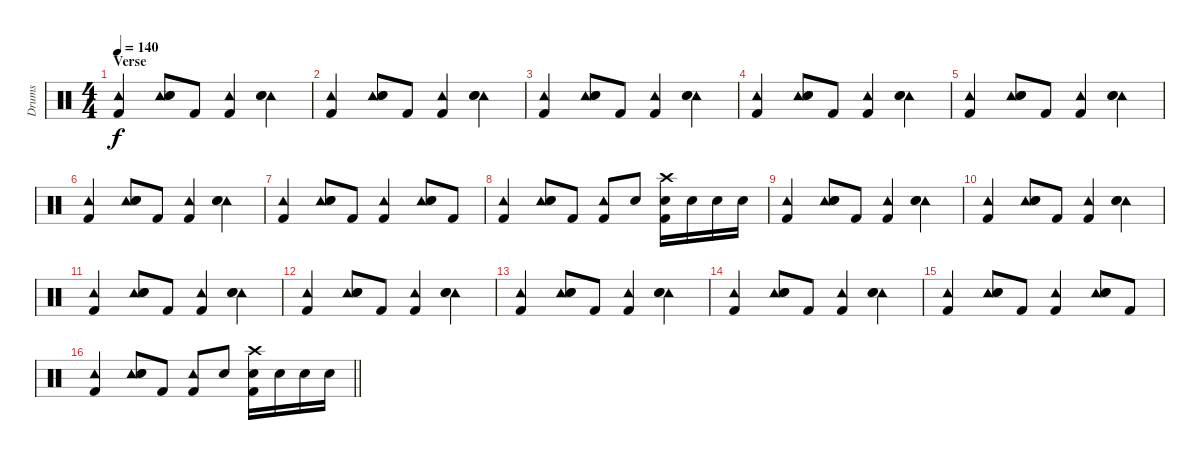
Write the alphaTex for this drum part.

\track ("Drums" "Drums") {instrument percussion}
\staff {score}
\articulation defaults
\ts (4 4)
\section ("" "Verse")
\tempo 140
\clef neutral
\ks c
("Tambourine (hit)" "Kick (hit) 2").4{dy f} ("Tambourine (hit)" "Hand Clap (hit)" "Electric Snare (hit)").8 "Kick (hit) 2".8 ("Tambourine (hit)" "Kick (hit) 2").4 ("Tambourine (hit)" "Hand Clap (hit)" "Electric Snare (hit)").4 |
("Tambourine (hit)" "Kick (hit) 2").4 ("Tambourine (hit)" "Hand Clap (hit)" "Electric Snare (hit)").8 "Kick (hit) 2".8 ("Tambourine (hit)" "Kick (hit) 2").4 ("Tambourine (hit)" "Hand Clap (hit)" "Electric Snare (hit)").4 |
("Tambourine (hit)" "Kick (hit) 2").4 ("Tambourine (hit)" "Hand Clap (hit)" "Electric Snare (hit)").8 "Kick (hit) 2".8 ("Tambourine (hit)" "Kick (hit) 2").4 ("Tambourine (hit)" "Hand Clap (hit)" "Electric Snare (hit)").4 |
("Tambourine (hit)" "Kick (hit) 2").4 ("Tambourine (hit)" "Hand Clap (hit)" "Electric Snare (hit)").8 "Kick (hit) 2".8 ("Tambourine (hit)" "Kick (hit) 2").4 ("Tambourine (hit)" "Hand Clap (hit)" "Electric Snare (hit)").4 |
("Tambourine (hit)" "Kick (hit) 2").4 ("Tambourine (hit)" "Hand Clap (hit)" "Electric Snare (hit)").8 "Kick (hit) 2".8 ("Tambourine (hit)" "Kick (hit) 2").4 ("Tambourine (hit)" "Hand Clap (hit)" "Electric Snare (hit)").4 |
("Tambourine (hit)" "Kick (hit) 2").4 ("Tambourine (hit)" "Hand Clap (hit)" "Electric Snare (hit)").8 "Kick (hit) 2".8 ("Tambourine (hit)" "Kick (hit) 2").4 ("Tambourine (hit)" "Hand Clap (hit)" "Electric Snare (hit)").4 |
("Tambourine (hit)" "Kick (hit) 2").4 ("Tambourine (hit)" "Hand Clap (hit)" "Electric Snare (hit)").8 "Kick (hit) 2".8 ("Tambourine (hit)" "Kick (hit) 2").4 ("Tambourine (hit)" "Hand Clap (hit)" "Electric Snare (hit)").8 "Kick (hit) 2".8 |
("Tambourine (hit)" "Kick (hit) 2").4 ("Tambourine (hit)" "Hand Clap (hit)" "Electric Snare (hit)").8 "Kick (hit) 2".8 ("Tambourine (hit)" "Kick (hit) 2").8 "Electric Snare (hit)".8 ("Crash high (hit)" "Hand Clap (hit)" "Kick (hit) 2").16 "Electric Snare (hit)".16 "Electric Snare (hit)".16 "Electric Snare (hit)".16 |
("Tambourine (hit)" "Kick (hit) 2").4 ("Tambourine (hit)" "Hand Clap (hit)" "Electric Snare (hit)").8 "Kick (hit) 2".8 ("Tambourine (hit)" "Kick (hit) 2").4 ("Tambourine (hit)" "Hand Clap (hit)" "Electric Snare (hit)").4 |
("Tambourine (hit)" "Kick (hit) 2").4 ("Tambourine (hit)" "Hand Clap (hit)" "Electric Snare (hit)").8 "Kick (hit) 2".8 ("Tambourine (hit)" "Kick (hit) 2").4 ("Tambourine (hit)" "Hand Clap (hit)" "Electric Snare (hit)").4 |
("Tambourine (hit)" "Kick (hit) 2").4 ("Tambourine (hit)" "Hand Clap (hit)" "Electric Snare (hit)").8 "Kick (hit) 2".8 ("Tambourine (hit)" "Kick (hit) 2").4 ("Tambourine (hit)" "Hand Clap (hit)" "Electric Snare (hit)").4 |
("Tambourine (hit)" "Kick (hit) 2").4 ("Tambourine (hit)" "Hand Clap (hit)" "Electric Snare (hit)").8 "Kick (hit) 2".8 ("Tambourine (hit)" "Kick (hit) 2").4 ("Tambourine (hit)" "Hand Clap (hit)" "Electric Snare (hit)").4 |
("Tambourine (hit)" "Kick (hit) 2").4 ("Tambourine (hit)" "Hand Clap (hit)" "Electric Snare (hit)").8 "Kick (hit) 2".8 ("Tambourine (hit)" "Kick (hit) 2").4 ("Tambourine (hit)" "Hand Clap (hit)" "Electric Snare (hit)").4 |
("Tambourine (hit)" "Kick (hit) 2").4 ("Tambourine (hit)" "Hand Clap (hit)" "Electric Snare (hit)").8 "Kick (hit) 2".8 ("Tambourine (hit)" "Kick (hit) 2").4 ("Tambourine (hit)" "Hand Clap (hit)" "Electric Snare (hit)").4 |
("Tambourine (hit)" "Kick (hit) 2").4 ("Tambourine (hit)" "Hand Clap (hit)" "Electric Snare (hit)").8 "Kick (hit) 2".8 ("Tambourine (hit)" "Kick (hit) 2").4 ("Tambourine (hit)" "Hand Clap (hit)" "Electric Snare (hit)").8 "Kick (hit) 2".8 |
\barLineRight lightlight
("Tambourine (hit)" "Kick (hit) 2").4 ("Tambourine (hit)" "Hand Clap (hit)" "Electric Snare (hit)").8 "Kick (hit) 2".8 ("Tambourine (hit)" "Kick (hit) 2").8 "Electric Snare (hit)".8 ("Crash high (hit)" "Hand Clap (hit)" "Kick (hit) 2").16 "Electric Snare (hit)".16 "Electric Snare (hit)".16 "Electric Snare (hit)".16
